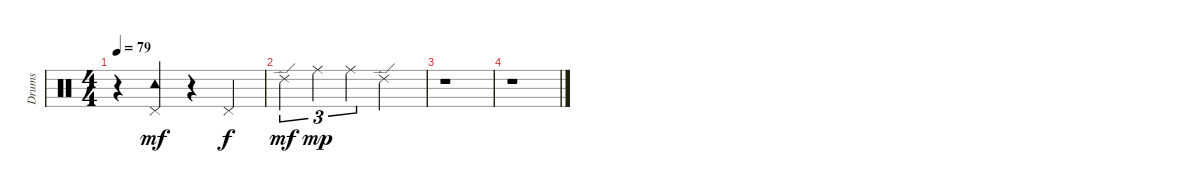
\track ("Drums" "Drums") {instrument percussion}
\staff {score}
\articulation defaults
\ts (4 4)
\tempo 79
\clef neutral
\ks c
r.4{dy f} ("Tambourine (hit)" "Pedal Hi-Hat (hit)").4{dy mf} r.4 "Pedal Hi-Hat (hit)".4{dy f} |
"Ride (edge) 2".4{tu (3 2) dy mf} "Ride (middle)".4{tu (3 2) dy mp} "Ride (middle)".4{tu (3 2)} "Ride (edge) 2".2 |
r.1 |
r.1
